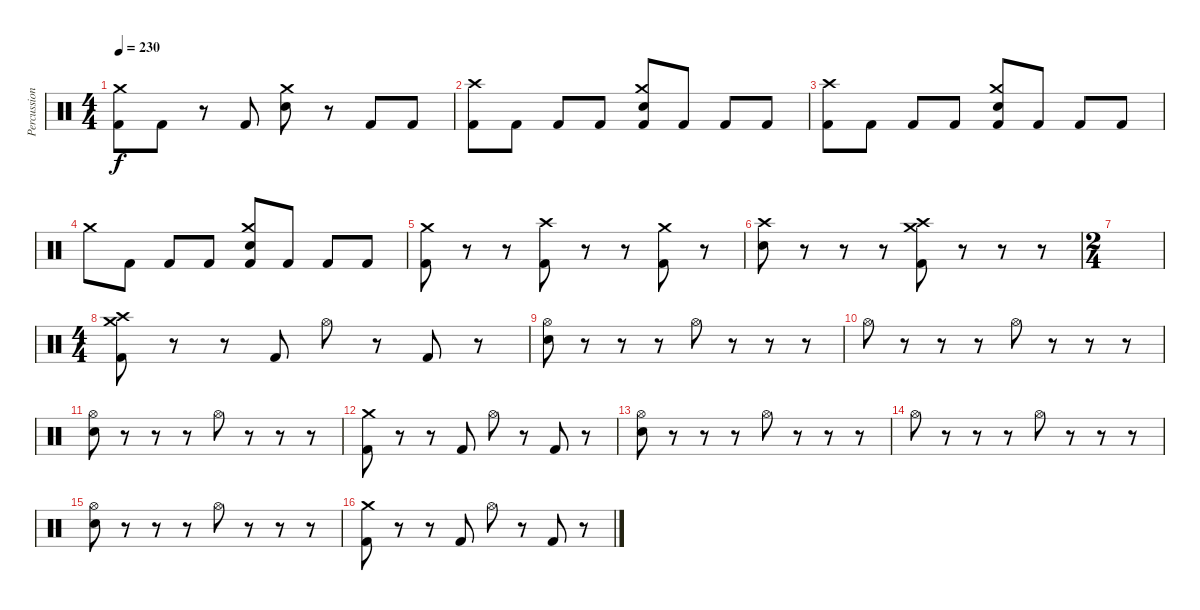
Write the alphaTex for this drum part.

\track ("Percussions" "Percussion") {instrument percussion}
\staff {score}
\articulation defaults
\ts (4 4)
\tempo 230
\clef neutral
\ks c
("Kick (hit) 2" "Crash medium (hit)").8{dy f} "Kick (hit) 2".8 r.8 "Kick (hit) 2".8 ("Electric Snare (hit)" "Crash medium (hit)").8 r.8 "Kick (hit) 2".8 "Kick (hit) 2".8 |
("Kick (hit) 2" "Crash high (hit)").8 "Kick (hit) 2".8 "Kick (hit) 2".8 "Kick (hit) 2".8 ("Kick (hit) 2" "Electric Snare (hit)" "Crash medium (hit)").8 "Kick (hit) 2".8 "Kick (hit) 2".8 "Kick (hit) 2".8 |
("Kick (hit) 2" "Crash high (hit)").8 "Kick (hit) 2".8 "Kick (hit) 2".8 "Kick (hit) 2".8 ("Kick (hit) 2" "Electric Snare (hit)" "Crash medium (hit)").8 "Kick (hit) 2".8 "Kick (hit) 2".8 "Kick (hit) 2".8 |
"Crash medium (hit)".8 "Kick (hit) 2".8 "Kick (hit) 2".8 "Kick (hit) 2".8 ("Kick (hit) 2" "Electric Snare (hit)" "Crash medium (hit)").8 "Kick (hit) 2".8 "Kick (hit) 2".8 "Kick (hit) 2".8 |
("Kick (hit) 2" "Crash medium (hit)").8 r.8 r.8 ("Kick (hit) 2" "Crash high (hit)").8 r.8 r.8 ("Kick (hit) 2" "Crash medium (hit)").8 r.8 |
("Electric Snare (hit)" "Crash high (hit)").8 r.8 r.8 r.8 ("Kick (hit) 2" "Crash medium (hit)" "Crash high (hit)").8 r.8 r.8 r.8 |
\ts (2 4)
|
\ts (4 4)
("Kick (hit) 2" "Crash high (hit)" "Crash medium (hit)").8 r.8 r.8 "Kick (hit) 2".8 "Hi-Hat (open)".8 r.8 "Kick (hit) 2".8 r.8 |
("Electric Snare (hit)" "Hi-Hat (open)").8 r.8 r.8 r.8 "Hi-Hat (open)".8 r.8 r.8 r.8 |
"Hi-Hat (open)".8 r.8 r.8 r.8 "Hi-Hat (open)".8 r.8 r.8 r.8 |
("Electric Snare (hit)" "Hi-Hat (open)").8 r.8 r.8 r.8 "Hi-Hat (open)".8 r.8 r.8 r.8 |
("Kick (hit) 2" "Crash medium (hit)").8 r.8 r.8 "Kick (hit) 2".8 "Hi-Hat (open)".8 r.8 "Kick (hit) 2".8 r.8 |
("Electric Snare (hit)" "Hi-Hat (open)").8 r.8 r.8 r.8 "Hi-Hat (open)".8 r.8 r.8 r.8 |
"Hi-Hat (open)".8 r.8 r.8 r.8 "Hi-Hat (open)".8 r.8 r.8 r.8 |
("Electric Snare (hit)" "Hi-Hat (open)").8 r.8 r.8 r.8 "Hi-Hat (open)".8 r.8 r.8 r.8 |
("Kick (hit) 2" "Crash medium (hit)").8 r.8 r.8 "Kick (hit) 2".8 "Hi-Hat (open)".8 r.8 "Kick (hit) 2".8 r.8
